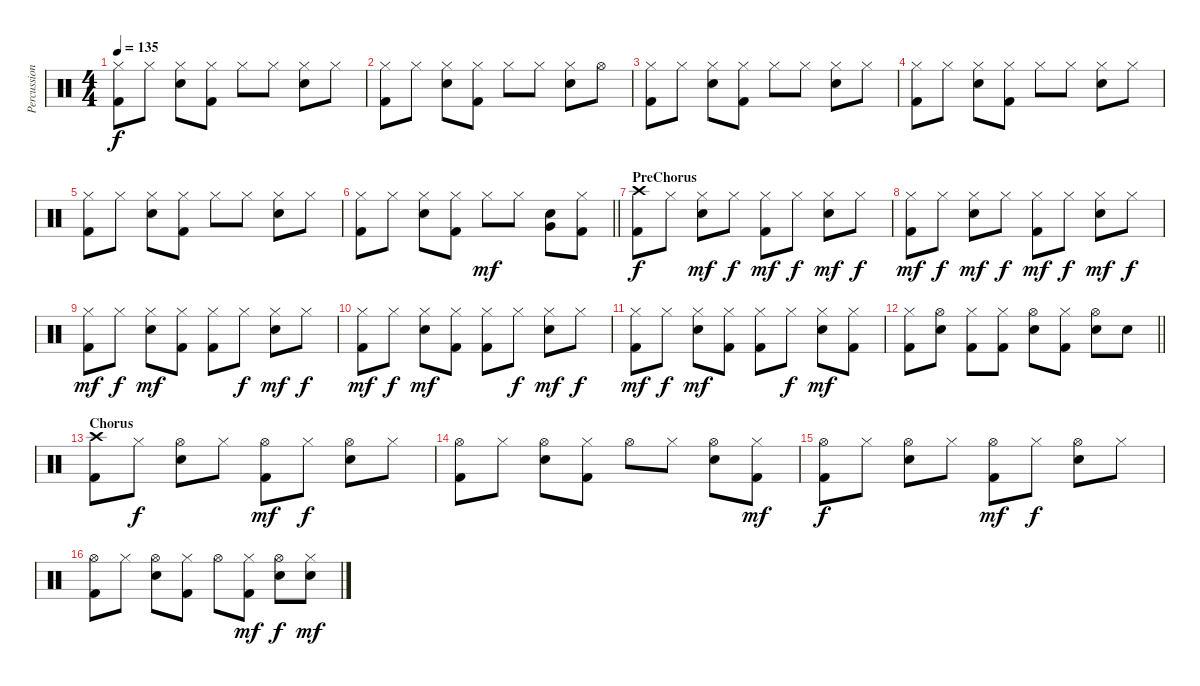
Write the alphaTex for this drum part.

\track ("Percussion" "Percussion") {instrument percussion}
\staff {score}
\articulation defaults
\ts (4 4)
\tempo 135
\clef neutral
\ks c
("Hi-Hat (closed)" "Kick (hit) 2").8{dy f} "Hi-Hat (closed)".8 ("Hi-Hat (closed)" "Electric Snare (hit)").8 ("Hi-Hat (closed)" "Kick (hit) 2").8 "Hi-Hat (closed)".8 "Hi-Hat (closed)".8 ("Hi-Hat (closed)" "Electric Snare (hit)").8 "Hi-Hat (closed)".8 |
("Hi-Hat (closed)" "Kick (hit) 2").8 "Hi-Hat (closed)".8 ("Hi-Hat (closed)" "Electric Snare (hit)").8 ("Hi-Hat (closed)" "Kick (hit) 2").8 "Hi-Hat (closed)".8 "Hi-Hat (closed)".8 ("Hi-Hat (closed)" "Electric Snare (hit)").8 "Hi-Hat (open)".8 |
("Hi-Hat (closed)" "Kick (hit) 2").8 "Hi-Hat (closed)".8 ("Hi-Hat (closed)" "Electric Snare (hit)").8 ("Hi-Hat (closed)" "Kick (hit) 2").8 "Hi-Hat (closed)".8 "Hi-Hat (closed)".8 ("Hi-Hat (closed)" "Electric Snare (hit)").8 "Hi-Hat (closed)".8 |
("Hi-Hat (closed)" "Kick (hit) 2").8 "Hi-Hat (closed)".8 ("Hi-Hat (closed)" "Electric Snare (hit)").8 ("Hi-Hat (closed)" "Kick (hit) 2").8 "Hi-Hat (closed)".8 "Hi-Hat (closed)".8 ("Hi-Hat (closed)" "Electric Snare (hit)").8 "Hi-Hat (closed)".8 |
("Hi-Hat (closed)" "Kick (hit) 2").8 "Hi-Hat (closed)".8 ("Hi-Hat (closed)" "Electric Snare (hit)").8 ("Hi-Hat (closed)" "Kick (hit) 2").8 "Hi-Hat (closed)".8 "Hi-Hat (closed)".8 ("Hi-Hat (closed)" "Electric Snare (hit)").8 "Hi-Hat (closed)".8 |
\barLineRight lightlight
("Hi-Hat (closed)" "Kick (hit) 2").8 "Hi-Hat (closed)".8 ("Hi-Hat (closed)" "Electric Snare (hit)").8 ("Hi-Hat (closed)" "Kick (hit) 2").8 "Hi-Hat (closed)".8{dy mf} "Hi-Hat (closed)".8 ("Very Low Tom (hit)" "Electric Snare (hit)").8 ("Hi-Hat (closed)" "Kick (hit) 2").8 |
\section ("" "PreChorus")
("Crash high (hit)" "Kick (hit) 2").8{dy f} "Hi-Hat (closed)".8 ("Hi-Hat (closed)" "Electric Snare (hit)").8{dy mf} "Hi-Hat (closed)".8{dy f} ("Hi-Hat (closed)" "Kick (hit) 2").8{dy mf} "Hi-Hat (closed)".8{dy f} ("Hi-Hat (closed)" "Electric Snare (hit)").8{dy mf} "Hi-Hat (closed)".8{dy f} |
("Hi-Hat (closed)" "Kick (hit) 2").8{dy mf} "Hi-Hat (closed)".8{dy f} ("Hi-Hat (closed)" "Electric Snare (hit)").8{dy mf} "Hi-Hat (closed)".8{dy f} ("Hi-Hat (closed)" "Kick (hit) 2").8{dy mf} "Hi-Hat (closed)".8{dy f} ("Hi-Hat (closed)" "Electric Snare (hit)").8{dy mf} "Hi-Hat (closed)".8{dy f} |
("Hi-Hat (closed)" "Kick (hit) 2").8{dy mf} "Hi-Hat (closed)".8{dy f} ("Hi-Hat (closed)" "Electric Snare (hit)").8{dy mf} ("Hi-Hat (closed)" "Kick (hit) 2").8 ("Hi-Hat (closed)" "Kick (hit) 2").8 "Hi-Hat (closed)".8{dy f} ("Hi-Hat (closed)" "Electric Snare (hit)").8{dy mf} "Hi-Hat (closed)".8{dy f} |
("Hi-Hat (closed)" "Kick (hit) 2").8{dy mf} "Hi-Hat (closed)".8{dy f} ("Hi-Hat (closed)" "Electric Snare (hit)").8{dy mf} ("Hi-Hat (closed)" "Kick (hit) 2").8 ("Hi-Hat (closed)" "Kick (hit) 2").8 "Hi-Hat (closed)".8{dy f} ("Hi-Hat (closed)" "Electric Snare (hit)").8{dy mf} "Hi-Hat (closed)".8{dy f} |
("Hi-Hat (closed)" "Kick (hit) 2").8{dy mf} "Hi-Hat (closed)".8{dy f} ("Hi-Hat (closed)" "Electric Snare (hit)").8{dy mf} ("Hi-Hat (closed)" "Kick (hit) 2").8 ("Hi-Hat (closed)" "Kick (hit) 2").8 "Hi-Hat (closed)".8{dy f} ("Hi-Hat (closed)" "Electric Snare (hit)").8{dy mf} ("Hi-Hat (closed)" "Kick (hit) 2").8 |
\barLineRight lightlight
("Hi-Hat (closed)" "Kick (hit) 2").8 ("Hi-Hat (open)" "Electric Snare (hit)").8 ("Hi-Hat (closed)" "Kick (hit) 2").8 ("Hi-Hat (closed)" "Kick (hit) 2").8 ("Hi-Hat (open)" "Electric Snare (hit)").8 ("Hi-Hat (closed)" "Kick (hit) 2").8 ("Hi-Hat (open)" "Electric Snare (hit)").8 "Electric Snare (hit)".8 |
\section ("" "Chorus")
("Crash high (hit)" "Kick (hit) 2").8 "Hi-Hat (closed)".8{dy f} ("Hi-Hat (open)" "Electric Snare (hit)").8 "Hi-Hat (closed)".8 ("Hi-Hat (open)" "Kick (hit) 2").8{dy mf} "Hi-Hat (closed)".8{dy f} ("Hi-Hat (open)" "Electric Snare (hit)").8 "Hi-Hat (closed)".8 |
("Hi-Hat (open)" "Kick (hit) 2").8 "Hi-Hat (closed)".8 ("Hi-Hat (open)" "Electric Snare (hit)").8 ("Hi-Hat (closed)" "Kick (hit) 2").8 "Hi-Hat (open)".8 "Hi-Hat (closed)".8 ("Hi-Hat (open)" "Electric Snare (hit)").8 ("Hi-Hat (closed)" "Kick (hit) 2").8{dy mf} |
("Hi-Hat (open)" "Kick (hit) 2").8{dy f} "Hi-Hat (closed)".8 ("Hi-Hat (open)" "Electric Snare (hit)").8 "Hi-Hat (closed)".8 ("Hi-Hat (open)" "Kick (hit) 2").8{dy mf} "Hi-Hat (closed)".8{dy f} ("Hi-Hat (open)" "Electric Snare (hit)").8 "Hi-Hat (closed)".8 |
("Hi-Hat (open)" "Kick (hit) 2").8 "Hi-Hat (closed)".8 ("Hi-Hat (open)" "Electric Snare (hit)").8 ("Hi-Hat (closed)" "Kick (hit) 2").8 "Hi-Hat (open)".8 ("Hi-Hat (closed)" "Kick (hit) 2").8{dy mf} ("Hi-Hat (open)" "Electric Snare (hit)").8{dy f} ("Hi-Hat (closed)" "Electric Snare (hit)").8{dy mf}
